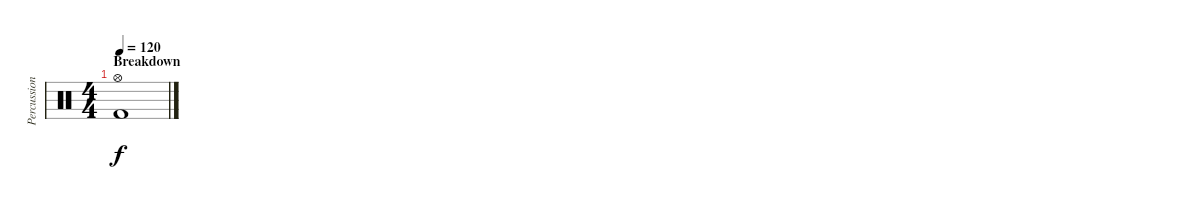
\track ("Percussion" "Percussion") {instrument percussion}
\staff {score}
\articulation defaults
\ts (4 4)
\section ("" "Breakdown")
\tempo 120
\clef neutral
\ks c
("Hi-Hat (open)" "Kick (hit) 2").1{dy f}
